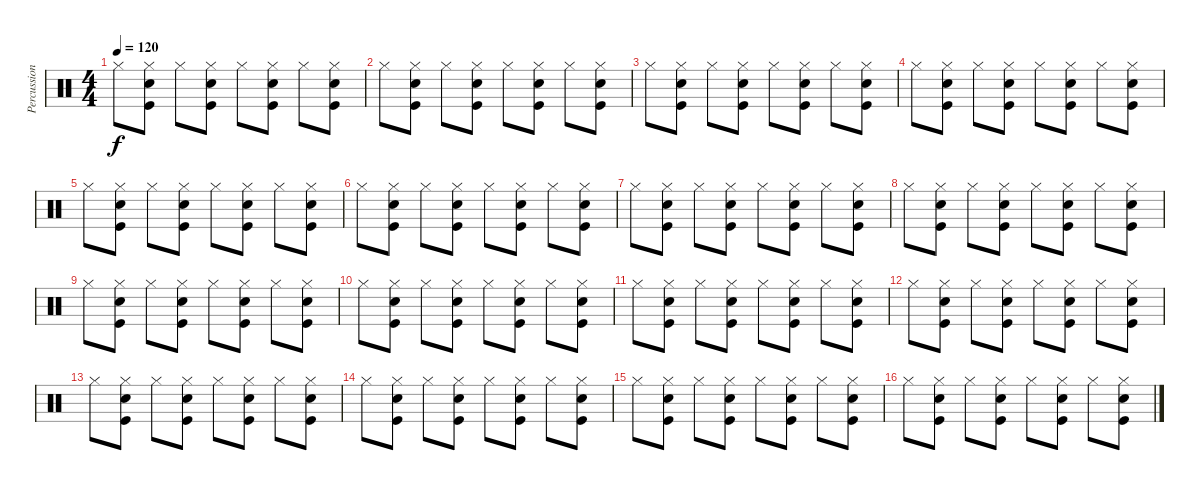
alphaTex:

\track ("Percussion-Alex" "Percussion") {instrument percussion}
\staff {score}
\articulation defaults
\ts (4 4)
\tempo 120
\clef neutral
\ks c "Hi-Hat (closed)".8{dy f}
("Snare (hit) 2" "Hi-Hat (closed)" "Kick (hit)").8 "Hi-Hat (closed)".8 ("Snare (hit) 2" "Hi-Hat (closed)" "Kick (hit)").8 "Hi-Hat (closed)".8 ("Snare (hit) 2" "Hi-Hat (closed)" "Kick (hit)").8 "Hi-Hat (closed)".8 ("Snare (hit) 2" "Hi-Hat (closed)" "Kick (hit)").8 |
"Hi-Hat (closed)".8 ("Snare (hit) 2" "Hi-Hat (closed)" "Kick (hit)").8 "Hi-Hat (closed)".8 ("Snare (hit) 2" "Hi-Hat (closed)" "Kick (hit)").8 "Hi-Hat (closed)".8 ("Snare (hit) 2" "Hi-Hat (closed)" "Kick (hit)").8 "Hi-Hat (closed)".8 ("Snare (hit) 2" "Hi-Hat (closed)" "Kick (hit)").8 |
"Hi-Hat (closed)".8 ("Snare (hit) 2" "Hi-Hat (closed)" "Kick (hit)").8 "Hi-Hat (closed)".8 ("Snare (hit) 2" "Hi-Hat (closed)" "Kick (hit)").8 "Hi-Hat (closed)".8 ("Snare (hit) 2" "Hi-Hat (closed)" "Kick (hit)").8 "Hi-Hat (closed)".8 ("Snare (hit) 2" "Hi-Hat (closed)" "Kick (hit)").8 |
"Hi-Hat (closed)".8 ("Snare (hit) 2" "Hi-Hat (closed)" "Kick (hit)").8 "Hi-Hat (closed)".8 ("Snare (hit) 2" "Hi-Hat (closed)" "Kick (hit)").8 "Hi-Hat (closed)".8 ("Snare (hit) 2" "Hi-Hat (closed)" "Kick (hit)").8 "Hi-Hat (closed)".8 ("Snare (hit) 2" "Hi-Hat (closed)" "Kick (hit)").8 |
"Hi-Hat (closed)".8 ("Snare (hit) 2" "Hi-Hat (closed)" "Kick (hit)").8 "Hi-Hat (closed)".8 ("Snare (hit) 2" "Hi-Hat (closed)" "Kick (hit)").8 "Hi-Hat (closed)".8 ("Snare (hit) 2" "Hi-Hat (closed)" "Kick (hit)").8 "Hi-Hat (closed)".8 ("Snare (hit) 2" "Hi-Hat (closed)" "Kick (hit)").8 |
"Hi-Hat (closed)".8 ("Snare (hit) 2" "Hi-Hat (closed)" "Kick (hit)").8 "Hi-Hat (closed)".8 ("Snare (hit) 2" "Hi-Hat (closed)" "Kick (hit)").8 "Hi-Hat (closed)".8 ("Snare (hit) 2" "Hi-Hat (closed)" "Kick (hit)").8 "Hi-Hat (closed)".8 ("Snare (hit) 2" "Hi-Hat (closed)" "Kick (hit)").8 |
"Hi-Hat (closed)".8 ("Snare (hit) 2" "Hi-Hat (closed)" "Kick (hit)").8 "Hi-Hat (closed)".8 ("Snare (hit) 2" "Hi-Hat (closed)" "Kick (hit)").8 "Hi-Hat (closed)".8 ("Snare (hit) 2" "Hi-Hat (closed)" "Kick (hit)").8 "Hi-Hat (closed)".8 ("Snare (hit) 2" "Hi-Hat (closed)" "Kick (hit)").8 |
"Hi-Hat (closed)".8 ("Snare (hit) 2" "Hi-Hat (closed)" "Kick (hit)").8 "Hi-Hat (closed)".8 ("Snare (hit) 2" "Hi-Hat (closed)" "Kick (hit)").8 "Hi-Hat (closed)".8 ("Snare (hit) 2" "Hi-Hat (closed)" "Kick (hit)").8 "Hi-Hat (closed)".8 ("Snare (hit) 2" "Hi-Hat (closed)" "Kick (hit)").8 |
"Hi-Hat (closed)".8 ("Snare (hit) 2" "Hi-Hat (closed)" "Kick (hit)").8 "Hi-Hat (closed)".8 ("Snare (hit) 2" "Hi-Hat (closed)" "Kick (hit)").8 "Hi-Hat (closed)".8 ("Snare (hit) 2" "Hi-Hat (closed)" "Kick (hit)").8 "Hi-Hat (closed)".8 ("Snare (hit) 2" "Hi-Hat (closed)" "Kick (hit)").8 |
"Hi-Hat (closed)".8 ("Snare (hit) 2" "Hi-Hat (closed)" "Kick (hit)").8 "Hi-Hat (closed)".8 ("Snare (hit) 2" "Hi-Hat (closed)" "Kick (hit)").8 "Hi-Hat (closed)".8 ("Snare (hit) 2" "Hi-Hat (closed)" "Kick (hit)").8 "Hi-Hat (closed)".8 ("Snare (hit) 2" "Hi-Hat (closed)" "Kick (hit)").8 |
"Hi-Hat (closed)".8 ("Snare (hit) 2" "Hi-Hat (closed)" "Kick (hit)").8 "Hi-Hat (closed)".8 ("Snare (hit) 2" "Hi-Hat (closed)" "Kick (hit)").8 "Hi-Hat (closed)".8 ("Snare (hit) 2" "Hi-Hat (closed)" "Kick (hit)").8 "Hi-Hat (closed)".8 ("Snare (hit) 2" "Hi-Hat (closed)" "Kick (hit)").8 |
"Hi-Hat (closed)".8 ("Snare (hit) 2" "Hi-Hat (closed)" "Kick (hit)").8 "Hi-Hat (closed)".8 ("Snare (hit) 2" "Hi-Hat (closed)" "Kick (hit)").8 "Hi-Hat (closed)".8 ("Snare (hit) 2" "Hi-Hat (closed)" "Kick (hit)").8 "Hi-Hat (closed)".8 ("Snare (hit) 2" "Hi-Hat (closed)" "Kick (hit)").8 |
"Hi-Hat (closed)".8 ("Snare (hit) 2" "Hi-Hat (closed)" "Kick (hit)").8 "Hi-Hat (closed)".8 ("Snare (hit) 2" "Hi-Hat (closed)" "Kick (hit)").8 "Hi-Hat (closed)".8 ("Snare (hit) 2" "Hi-Hat (closed)" "Kick (hit)").8 "Hi-Hat (closed)".8 ("Snare (hit) 2" "Hi-Hat (closed)" "Kick (hit)").8 |
"Hi-Hat (closed)".8 ("Snare (hit) 2" "Hi-Hat (closed)" "Kick (hit)").8 "Hi-Hat (closed)".8 ("Snare (hit) 2" "Hi-Hat (closed)" "Kick (hit)").8 "Hi-Hat (closed)".8 ("Snare (hit) 2" "Hi-Hat (closed)" "Kick (hit)").8 "Hi-Hat (closed)".8 ("Snare (hit) 2" "Hi-Hat (closed)" "Kick (hit)").8 |
"Hi-Hat (closed)".8 ("Snare (hit) 2" "Hi-Hat (closed)" "Kick (hit)").8 "Hi-Hat (closed)".8 ("Snare (hit) 2" "Hi-Hat (closed)" "Kick (hit)").8 "Hi-Hat (closed)".8 ("Snare (hit) 2" "Hi-Hat (closed)" "Kick (hit)").8 "Hi-Hat (closed)".8 ("Snare (hit) 2" "Hi-Hat (closed)" "Kick (hit)").8 |
"Hi-Hat (closed)".8 ("Snare (hit) 2" "Hi-Hat (closed)" "Kick (hit)").8 "Hi-Hat (closed)".8 ("Snare (hit) 2" "Hi-Hat (closed)" "Kick (hit)").8 "Hi-Hat (closed)".8 ("Snare (hit) 2" "Hi-Hat (closed)" "Kick (hit)").8 "Hi-Hat (closed)".8 ("Snare (hit) 2" "Hi-Hat (closed)" "Kick (hit)").8
